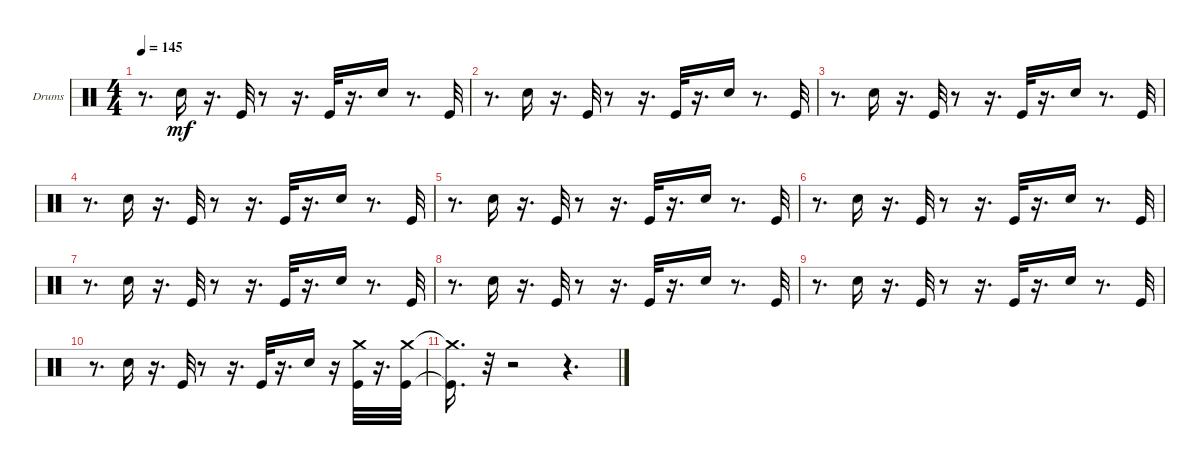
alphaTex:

\bracketExtendMode groupsimilarinstruments
\firstSystemTrackNameOrientation horizontal
\otherSystemsTrackNameOrientation horizontal
\track ("Drums" "Drums") {instrument percussion}
\staff {score}
\articulation defaults
\ts (4 4)
\tempo 145
\clef neutral
\ks c
r.8{d dy mf} "Snare (hit) 2".16 r.16{d} "Kick (hit)".32 r.8 r.16{d} "Kick (hit)".32 r.16{d} "Snare (hit) 2".16 r.8{d} "Kick (hit)".32 |
r.8{d} "Snare (hit) 2".16 r.16{d} "Kick (hit)".32 r.8 r.16{d} "Kick (hit)".32 r.16{d} "Snare (hit) 2".16 r.8{d} "Kick (hit)".32 |
r.8{d} "Snare (hit) 2".16 r.16{d} "Kick (hit)".32 r.8 r.16{d} "Kick (hit)".32 r.16{d} "Snare (hit) 2".16 r.8{d} "Kick (hit)".32 |
r.8{d} "Snare (hit) 2".16 r.16{d} "Kick (hit)".32 r.8 r.16{d} "Kick (hit)".32 r.16{d} "Snare (hit) 2".16 r.8{d} "Kick (hit)".32 |
r.8{d} "Snare (hit) 2".16 r.16{d} "Kick (hit)".32 r.8 r.16{d} "Kick (hit)".32 r.16{d} "Snare (hit) 2".16 r.8{d} "Kick (hit)".32 |
r.8{d} "Snare (hit) 2".16 r.16{d} "Kick (hit)".32 r.8 r.16{d} "Kick (hit)".32 r.16{d} "Snare (hit) 2".16 r.8{d} "Kick (hit)".32 |
r.8{d} "Snare (hit) 2".16 r.16{d} "Kick (hit)".32 r.8 r.16{d} "Kick (hit)".32 r.16{d} "Snare (hit) 2".16 r.8{d} "Kick (hit)".32 |
r.8{d} "Snare (hit) 2".16 r.16{d} "Kick (hit)".32 r.8 r.16{d} "Kick (hit)".32 r.16{d} "Snare (hit) 2".16 r.8{d} "Kick (hit)".32 |
r.8{d} "Snare (hit) 2".16 r.16{d} "Kick (hit)".32 r.8 r.16{d} "Kick (hit)".32 r.16{d} "Snare (hit) 2".16 r.8{d} "Kick (hit)".32 |
r.8{d} "Snare (hit) 2".16 r.16{d} "Kick (hit)".32 r.8 r.16{d} "Kick (hit)".32 r.16{d} "Snare (hit) 2".16 r.16 ("Crash medium (hit)" "Kick (hit)").32 r.16{d} ("Crash medium (hit)" "Kick (hit)").32 |
("Crash medium (hit)"{t} "Kick (hit)"{t}).16{d} r.32 r.2 r.4{d}
